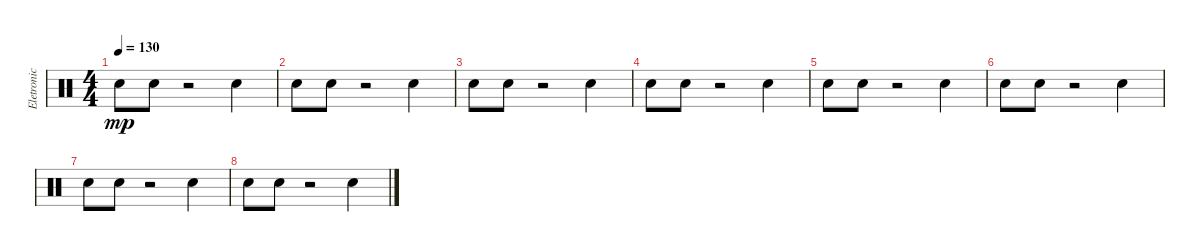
\track ("Eletronic drum" "Eletronic ") {instrument percussion}
\staff {score}
\articulation defaults
\ts (4 4)
\tempo 130
\clef neutral
\ks c "Snare (hit) 2".8{dy mp} "Hand Clap (hit)".8
r.2 "Hand Clap (hit)".4 |
"Snare (hit) 2".8 "Hand Clap (hit)".8 r.2 "Hand Clap (hit)".4 |
"Snare (hit) 2".8 "Hand Clap (hit)".8 r.2 "Hand Clap (hit)".4 |
"Snare (hit) 2".8 "Hand Clap (hit)".8 r.2 "Hand Clap (hit)".4 |
"Snare (hit) 2".8 "Hand Clap (hit)".8 r.2 "Hand Clap (hit)".4 |
"Snare (hit) 2".8 "Hand Clap (hit)".8 r.2 "Hand Clap (hit)".4 |
"Snare (hit) 2".8 "Hand Clap (hit)".8 r.2 "Hand Clap (hit)".4 |
"Snare (hit) 2".8 "Hand Clap (hit)".8 r.2 "Hand Clap (hit)".4
